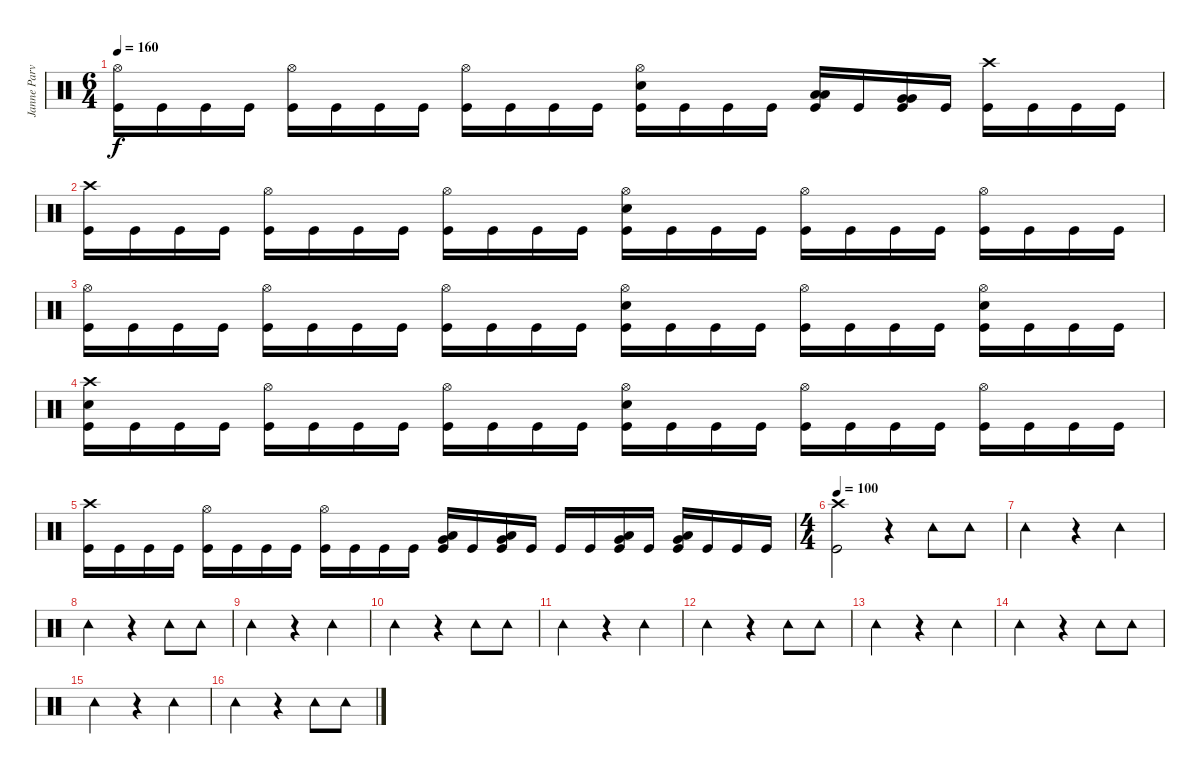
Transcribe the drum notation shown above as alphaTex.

\track ("Janne Parviainen" "Janne Parv") {instrument percussion}
\staff {score}
\articulation defaults
\ts (6 4)
\tempo 160
\clef neutral
\ks c
("Hi-Hat (open)" "Kick (hit)").16{dy f} "Kick (hit)".16 "Kick (hit)".16 "Kick (hit)".16 ("Hi-Hat (open)" "Kick (hit)").16 "Kick (hit)".16 "Kick (hit)".16 "Kick (hit)".16 ("Hi-Hat (open)" "Kick (hit)").16 "Kick (hit)".16 "Kick (hit)".16 "Kick (hit)".16 ("Hi-Hat (open)" "Electric Snare (hit)" "Kick (hit)").16 "Kick (hit)".16 "Kick (hit)".16 "Kick (hit)".16 ("Low Tom (hit)" "Low Tom (hit)" "Kick (hit)").16 "Kick (hit)".16 ("Very Low Tom (hit)" "Very Low Tom (hit)" "Kick (hit)").16 "Kick (hit)".16 ("Crash high (hit)" "Kick (hit)").16 "Kick (hit)".16 "Kick (hit)".16 "Kick (hit)".16 |
("Crash high (hit)" "Kick (hit)").16 "Kick (hit)".16 "Kick (hit)".16 "Kick (hit)".16 ("Hi-Hat (open)" "Kick (hit)").16 "Kick (hit)".16 "Kick (hit)".16 "Kick (hit)".16 ("Hi-Hat (open)" "Kick (hit)").16 "Kick (hit)".16 "Kick (hit)".16 "Kick (hit)".16 ("Hi-Hat (open)" "Electric Snare (hit)" "Kick (hit)").16 "Kick (hit)".16 "Kick (hit)".16 "Kick (hit)".16 ("Hi-Hat (open)" "Kick (hit)").16 "Kick (hit)".16 "Kick (hit)".16 "Kick (hit)".16 ("Hi-Hat (open)" "Kick (hit)").16 "Kick (hit)".16 "Kick (hit)".16 "Kick (hit)".16 |
("Hi-Hat (open)" "Kick (hit)").16 "Kick (hit)".16 "Kick (hit)".16 "Kick (hit)".16 ("Hi-Hat (open)" "Kick (hit)").16 "Kick (hit)".16 "Kick (hit)".16 "Kick (hit)".16 ("Hi-Hat (open)" "Kick (hit)").16 "Kick (hit)".16 "Kick (hit)".16 "Kick (hit)".16 ("Hi-Hat (open)" "Electric Snare (hit)" "Kick (hit)").16 "Kick (hit)".16 "Kick (hit)".16 "Kick (hit)".16 ("Hi-Hat (open)" "Kick (hit)").16 "Kick (hit)".16 "Kick (hit)".16 "Kick (hit)".16 ("Hi-Hat (open)" "Electric Snare (hit)" "Kick (hit)").16 "Kick (hit)".16 "Kick (hit)".16 "Kick (hit)".16 |
("Crash high (hit)" "Electric Snare (hit)" "Kick (hit)").16 "Kick (hit)".16 "Kick (hit)".16 "Kick (hit)".16 ("Hi-Hat (open)" "Kick (hit)").16 "Kick (hit)".16 "Kick (hit)".16 "Kick (hit)".16 ("Hi-Hat (open)" "Kick (hit)").16 "Kick (hit)".16 "Kick (hit)".16 "Kick (hit)".16 ("Hi-Hat (open)" "Electric Snare (hit)" "Kick (hit)").16 "Kick (hit)".16 "Kick (hit)".16 "Kick (hit)".16 ("Hi-Hat (open)" "Kick (hit)").16 "Kick (hit)".16 "Kick (hit)".16 "Kick (hit)".16 ("Hi-Hat (open)" "Kick (hit)").16 "Kick (hit)".16 "Kick (hit)".16 "Kick (hit)".16 |
("Crash high (hit)" "Kick (hit)").16 "Kick (hit)".16 "Kick (hit)".16 "Kick (hit)".16 ("Hi-Hat (open)" "Kick (hit)").16 "Kick (hit)".16 "Kick (hit)".16 "Kick (hit)".16 ("Hi-Hat (open)" "Kick (hit)").16 "Kick (hit)".16 "Kick (hit)".16 "Kick (hit)".16 ("Very Low Tom (hit)" "Low Tom (hit)" "Kick (hit)").16 "Kick (hit)".16 ("Very Low Tom (hit)" "Low Tom (hit)" "Kick (hit)").16 "Kick (hit)".16 "Kick (hit)".16 "Kick (hit)".16 ("Very Low Tom (hit)" "Low Tom (hit)" "Kick (hit)").16 "Kick (hit)".16 ("Very Low Tom (hit)" "Low Tom (hit)" "Kick (hit)").16 "Kick (hit)".16 "Kick (hit)".16 "Kick (hit)".16 |
\ts (4 4)
\tempo 100
("Crash high (hit)" "Kick (hit)").2 r.4 "Tambourine (hit)".8{volume 12 balance 4} "Tambourine (hit)".8 |
"Tambourine (hit)".2 r.4 "Tambourine (hit)".4 |
"Tambourine (hit)".2 r.4 "Tambourine (hit)".8 "Tambourine (hit)".8 |
"Tambourine (hit)".2 r.4 "Tambourine (hit)".4 |
"Tambourine (hit)".2 r.4 "Tambourine (hit)".8 "Tambourine (hit)".8 |
"Tambourine (hit)".2 r.4 "Tambourine (hit)".4 |
"Tambourine (hit)".2 r.4 "Tambourine (hit)".8 "Tambourine (hit)".8 |
"Tambourine (hit)".2 r.4 "Tambourine (hit)".4 |
"Tambourine (hit)".2 r.4 "Tambourine (hit)".8 "Tambourine (hit)".8 |
"Tambourine (hit)".2 r.4 "Tambourine (hit)".4 |
"Tambourine (hit)".2 r.4 "Tambourine (hit)".8 "Tambourine (hit)".8
